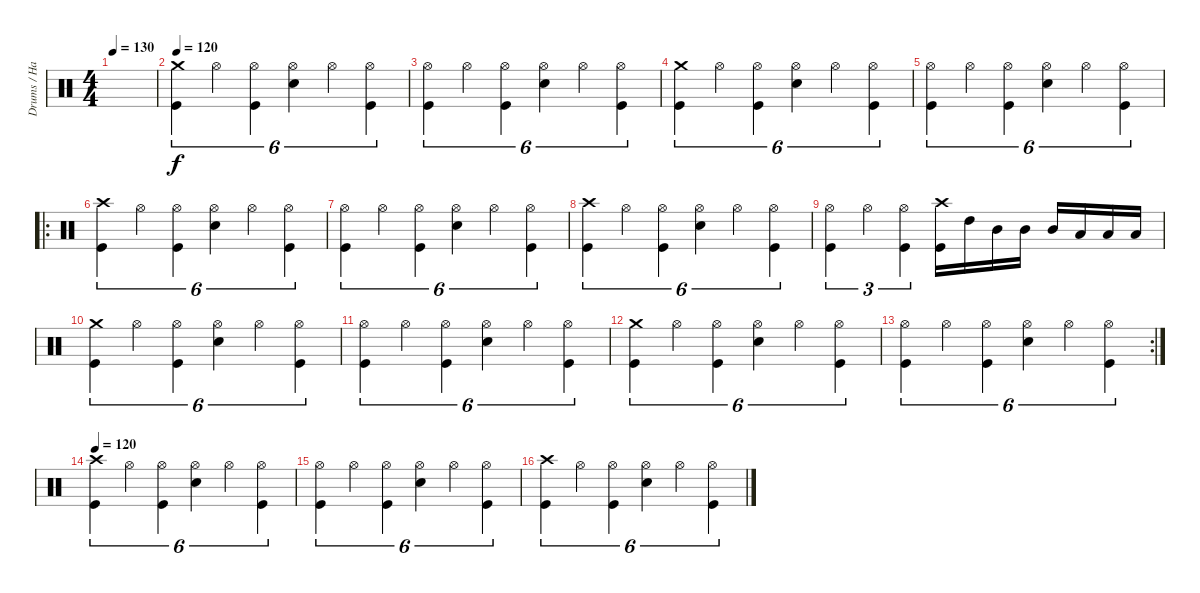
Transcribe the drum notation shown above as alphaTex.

\track ("Drums / Hammer of God" "Drums / Ha") {instrument percussion}
\staff {score}
\articulation defaults
\ts (4 4)
\tempo 130
\clef neutral
\ks c
|
\tempo 120
("Kick (hit)" "Crash medium (hit)").4{tu (6 4)} "Hi-Hat (open)".4{tu (6 4)} ("Kick (hit)" "Hi-Hat (open)").4{tu (6 4)} ("Snare (hit) 2" "Hi-Hat (open)").4{tu (6 4)} "Hi-Hat (open)".4{tu (6 4)} ("Kick (hit)" "Hi-Hat (open)").4{tu (6 4)} |
("Kick (hit)" "Hi-Hat (open)").4{tu (6 4)} "Hi-Hat (open)".4{tu (6 4)} ("Kick (hit)" "Hi-Hat (open)").4{tu (6 4)} ("Snare (hit) 2" "Hi-Hat (open)").4{tu (6 4)} "Hi-Hat (open)".4{tu (6 4)} ("Kick (hit)" "Hi-Hat (open)").4{tu (6 4)} |
("Kick (hit)" "Crash medium (hit)").4{tu (6 4)} "Hi-Hat (open)".4{tu (6 4)} ("Kick (hit)" "Hi-Hat (open)").4{tu (6 4)} ("Snare (hit) 2" "Hi-Hat (open)").4{tu (6 4)} "Hi-Hat (open)".4{tu (6 4)} ("Kick (hit)" "Hi-Hat (open)").4{tu (6 4)} |
("Kick (hit)" "Hi-Hat (open)").4{tu (6 4)} "Hi-Hat (open)".4{tu (6 4)} ("Kick (hit)" "Hi-Hat (open)").4{tu (6 4)} ("Snare (hit) 2" "Hi-Hat (open)").4{tu (6 4)} "Hi-Hat (open)".4{tu (6 4)} ("Kick (hit)" "Hi-Hat (open)").4{tu (6 4)} |
\ro
("Kick (hit)" "Crash high (hit)").4{tu (6 4)} "Hi-Hat (open)".4{tu (6 4)} ("Kick (hit)" "Hi-Hat (open)").4{tu (6 4)} ("Snare (hit) 2" "Hi-Hat (open)").4{tu (6 4)} "Hi-Hat (open)".4{tu (6 4)} ("Kick (hit)" "Hi-Hat (open)").4{tu (6 4)} |
("Kick (hit)" "Hi-Hat (open)").4{tu (6 4)} "Hi-Hat (open)".4{tu (6 4)} ("Kick (hit)" "Hi-Hat (open)").4{tu (6 4)} ("Snare (hit) 2" "Hi-Hat (open)").4{tu (6 4)} "Hi-Hat (open)".4{tu (6 4)} ("Kick (hit)" "Hi-Hat (open)").4{tu (6 4)} |
("Kick (hit)" "Crash high (hit)").4{tu (6 4)} "Hi-Hat (open)".4{tu (6 4)} ("Kick (hit)" "Hi-Hat (open)").4{tu (6 4)} ("Snare (hit) 2" "Hi-Hat (open)").4{tu (6 4)} "Hi-Hat (open)".4{tu (6 4)} ("Kick (hit)" "Hi-Hat (open)").4{tu (6 4)} |
("Kick (hit)" "Hi-Hat (open)").4{tu (3 2)} "Hi-Hat (open)".4{tu (3 2)} ("Kick (hit)" "Hi-Hat (open)").4{tu (3 2)} ("Kick (hit)" "Crash high (hit)").16 "High Tom (hit)".16 "Mid Tom (hit)".16 "Mid Tom (hit)".16 "Mid Tom (hit)".16 "Low Tom (hit)".16 "Low Tom (hit)".16 "Low Tom (hit)".16 |
("Kick (hit)" "Crash medium (hit)").4{tu (6 4)} "Hi-Hat (open)".4{tu (6 4)} ("Kick (hit)" "Hi-Hat (open)").4{tu (6 4)} ("Snare (hit) 2" "Hi-Hat (open)").4{tu (6 4)} "Hi-Hat (open)".4{tu (6 4)} ("Kick (hit)" "Hi-Hat (open)").4{tu (6 4)} |
("Kick (hit)" "Hi-Hat (open)").4{tu (6 4)} "Hi-Hat (open)".4{tu (6 4)} ("Kick (hit)" "Hi-Hat (open)").4{tu (6 4)} ("Snare (hit) 2" "Hi-Hat (open)").4{tu (6 4)} "Hi-Hat (open)".4{tu (6 4)} ("Kick (hit)" "Hi-Hat (open)").4{tu (6 4)} |
("Kick (hit)" "Crash medium (hit)").4{tu (6 4)} "Hi-Hat (open)".4{tu (6 4)} ("Kick (hit)" "Hi-Hat (open)").4{tu (6 4)} ("Snare (hit) 2" "Hi-Hat (open)").4{tu (6 4)} "Hi-Hat (open)".4{tu (6 4)} ("Kick (hit)" "Hi-Hat (open)").4{tu (6 4)} |
\rc 2
("Kick (hit)" "Hi-Hat (open)").4{tu (6 4)} "Hi-Hat (open)".4{tu (6 4)} ("Kick (hit)" "Hi-Hat (open)").4{tu (6 4)} ("Snare (hit) 2" "Hi-Hat (open)").4{tu (6 4)} "Hi-Hat (open)".4{tu (6 4)} ("Kick (hit)" "Hi-Hat (open)").4{tu (6 4)} |
\tempo 120
("Kick (hit)" "Crash high (hit)").4{tu (6 4)} "Hi-Hat (open)".4{tu (6 4)} ("Kick (hit)" "Hi-Hat (open)").4{tu (6 4)} ("Snare (hit) 2" "Hi-Hat (open)").4{tu (6 4)} "Hi-Hat (open)".4{tu (6 4)} ("Kick (hit)" "Hi-Hat (open)").4{tu (6 4)} |
("Kick (hit)" "Hi-Hat (open)").4{tu (6 4)} "Hi-Hat (open)".4{tu (6 4)} ("Kick (hit)" "Hi-Hat (open)").4{tu (6 4)} ("Snare (hit) 2" "Hi-Hat (open)").4{tu (6 4)} "Hi-Hat (open)".4{tu (6 4)} ("Kick (hit)" "Hi-Hat (open)").4{tu (6 4)} |
("Kick (hit)" "Crash high (hit)").4{tu (6 4)} "Hi-Hat (open)".4{tu (6 4)} ("Kick (hit)" "Hi-Hat (open)").4{tu (6 4)} ("Snare (hit) 2" "Hi-Hat (open)").4{tu (6 4)} "Hi-Hat (open)".4{tu (6 4)} ("Kick (hit)" "Hi-Hat (open)").4{tu (6 4)}
